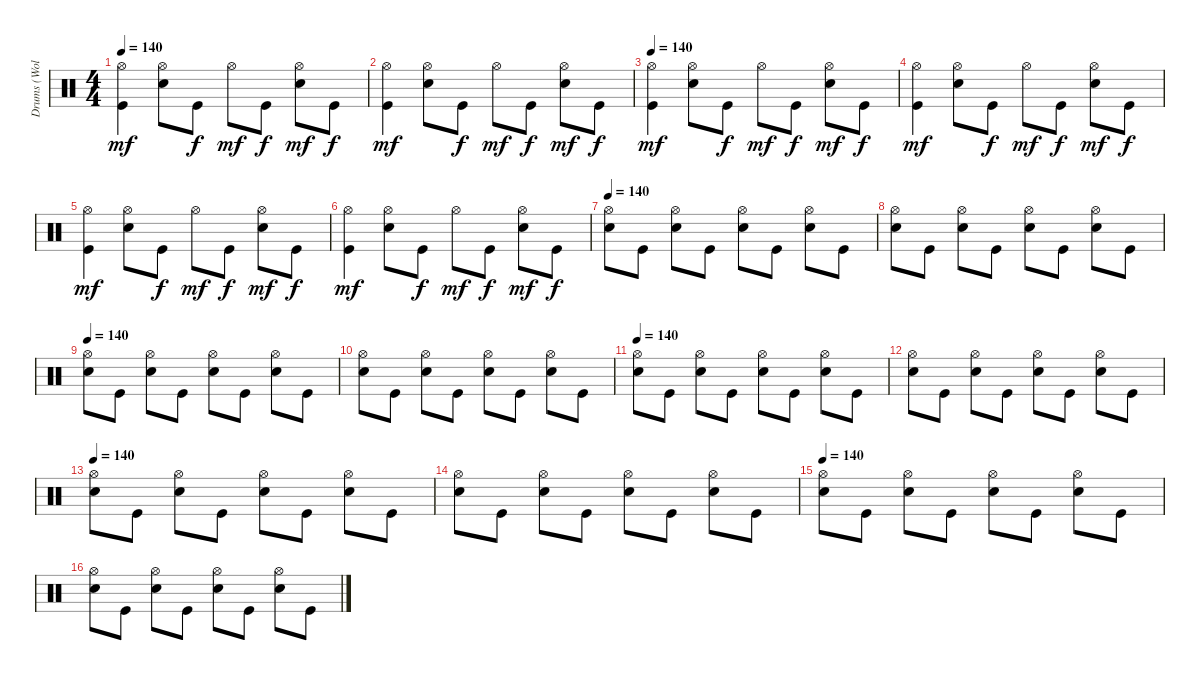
\track ("Drums (Wolf Simons)" "Drums (Wol") {instrument percussion}
\staff {score}
\articulation defaults
\ts (4 4)
\tempo 140
\clef neutral
\ks c
("Kick (hit)" "Hi-Hat (open)").4{dy mf} ("Electric Snare (hit)" "Hi-Hat (open)").8 "Kick (hit)".8{dy f} "Hi-Hat (open)".8{dy mf} "Kick (hit)".8{dy f} ("Electric Snare (hit)" "Hi-Hat (open)").8{dy mf} "Kick (hit)".8{dy f} |
("Kick (hit)" "Hi-Hat (open)").4{dy mf} ("Electric Snare (hit)" "Hi-Hat (open)").8 "Kick (hit)".8{dy f} "Hi-Hat (open)".8{dy mf} "Kick (hit)".8{dy f} ("Electric Snare (hit)" "Hi-Hat (open)").8{dy mf} "Kick (hit)".8{dy f} |
\tempo 140
("Kick (hit)" "Hi-Hat (open)").4{dy mf} ("Electric Snare (hit)" "Hi-Hat (open)").8 "Kick (hit)".8{dy f} "Hi-Hat (open)".8{dy mf} "Kick (hit)".8{dy f} ("Electric Snare (hit)" "Hi-Hat (open)").8{dy mf} "Kick (hit)".8{dy f} |
("Kick (hit)" "Hi-Hat (open)").4{dy mf} ("Electric Snare (hit)" "Hi-Hat (open)").8 "Kick (hit)".8{dy f} "Hi-Hat (open)".8{dy mf} "Kick (hit)".8{dy f} ("Electric Snare (hit)" "Hi-Hat (open)").8{dy mf} "Kick (hit)".8{dy f} |
("Kick (hit)" "Hi-Hat (open)").4{dy mf} ("Electric Snare (hit)" "Hi-Hat (open)").8 "Kick (hit)".8{dy f} "Hi-Hat (open)".8{dy mf} "Kick (hit)".8{dy f} ("Electric Snare (hit)" "Hi-Hat (open)").8{dy mf} "Kick (hit)".8{dy f} |
("Kick (hit)" "Hi-Hat (open)").4{dy mf} ("Electric Snare (hit)" "Hi-Hat (open)").8 "Kick (hit)".8{dy f} "Hi-Hat (open)".8{dy mf} "Kick (hit)".8{dy f} ("Electric Snare (hit)" "Hi-Hat (open)").8{dy mf} "Kick (hit)".8{dy f} |
\tempo 140
("Hi-Hat (open)" "Electric Snare (hit)").8 "Kick (hit)".8 ("Hi-Hat (open)" "Electric Snare (hit)").8 "Kick (hit)".8 ("Hi-Hat (open)" "Electric Snare (hit)").8 "Kick (hit)".8 ("Hi-Hat (open)" "Electric Snare (hit)").8 "Kick (hit)".8 |
("Hi-Hat (open)" "Electric Snare (hit)").8 "Kick (hit)".8 ("Hi-Hat (open)" "Electric Snare (hit)").8 "Kick (hit)".8 ("Hi-Hat (open)" "Electric Snare (hit)").8 "Kick (hit)".8 ("Hi-Hat (open)" "Electric Snare (hit)").8 "Kick (hit)".8 |
\tempo 140
("Hi-Hat (open)" "Electric Snare (hit)").8 "Kick (hit)".8 ("Hi-Hat (open)" "Electric Snare (hit)").8 "Kick (hit)".8 ("Hi-Hat (open)" "Electric Snare (hit)").8 "Kick (hit)".8 ("Hi-Hat (open)" "Electric Snare (hit)").8 "Kick (hit)".8 |
("Hi-Hat (open)" "Electric Snare (hit)").8 "Kick (hit)".8 ("Hi-Hat (open)" "Electric Snare (hit)").8 "Kick (hit)".8 ("Hi-Hat (open)" "Electric Snare (hit)").8 "Kick (hit)".8 ("Hi-Hat (open)" "Electric Snare (hit)").8 "Kick (hit)".8 |
\tempo 140
("Hi-Hat (open)" "Electric Snare (hit)").8 "Kick (hit)".8 ("Hi-Hat (open)" "Electric Snare (hit)").8 "Kick (hit)".8 ("Hi-Hat (open)" "Electric Snare (hit)").8 "Kick (hit)".8 ("Hi-Hat (open)" "Electric Snare (hit)").8 "Kick (hit)".8 |
("Hi-Hat (open)" "Electric Snare (hit)").8 "Kick (hit)".8 ("Hi-Hat (open)" "Electric Snare (hit)").8 "Kick (hit)".8 ("Hi-Hat (open)" "Electric Snare (hit)").8 "Kick (hit)".8 ("Hi-Hat (open)" "Electric Snare (hit)").8 "Kick (hit)".8 |
\tempo 140
("Hi-Hat (open)" "Electric Snare (hit)").8 "Kick (hit)".8 ("Hi-Hat (open)" "Electric Snare (hit)").8 "Kick (hit)".8 ("Hi-Hat (open)" "Electric Snare (hit)").8 "Kick (hit)".8 ("Hi-Hat (open)" "Electric Snare (hit)").8 "Kick (hit)".8 |
("Hi-Hat (open)" "Electric Snare (hit)").8 "Kick (hit)".8 ("Hi-Hat (open)" "Electric Snare (hit)").8 "Kick (hit)".8 ("Hi-Hat (open)" "Electric Snare (hit)").8 "Kick (hit)".8 ("Hi-Hat (open)" "Electric Snare (hit)").8 "Kick (hit)".8 |
\tempo 140
("Hi-Hat (open)" "Electric Snare (hit)").8 "Kick (hit)".8 ("Hi-Hat (open)" "Electric Snare (hit)").8 "Kick (hit)".8 ("Hi-Hat (open)" "Electric Snare (hit)").8 "Kick (hit)".8 ("Hi-Hat (open)" "Electric Snare (hit)").8 "Kick (hit)".8 |
("Hi-Hat (open)" "Electric Snare (hit)").8 "Kick (hit)".8 ("Hi-Hat (open)" "Electric Snare (hit)").8 "Kick (hit)".8 ("Hi-Hat (open)" "Electric Snare (hit)").8 "Kick (hit)".8 ("Hi-Hat (open)" "Electric Snare (hit)").8 "Kick (hit)".8
